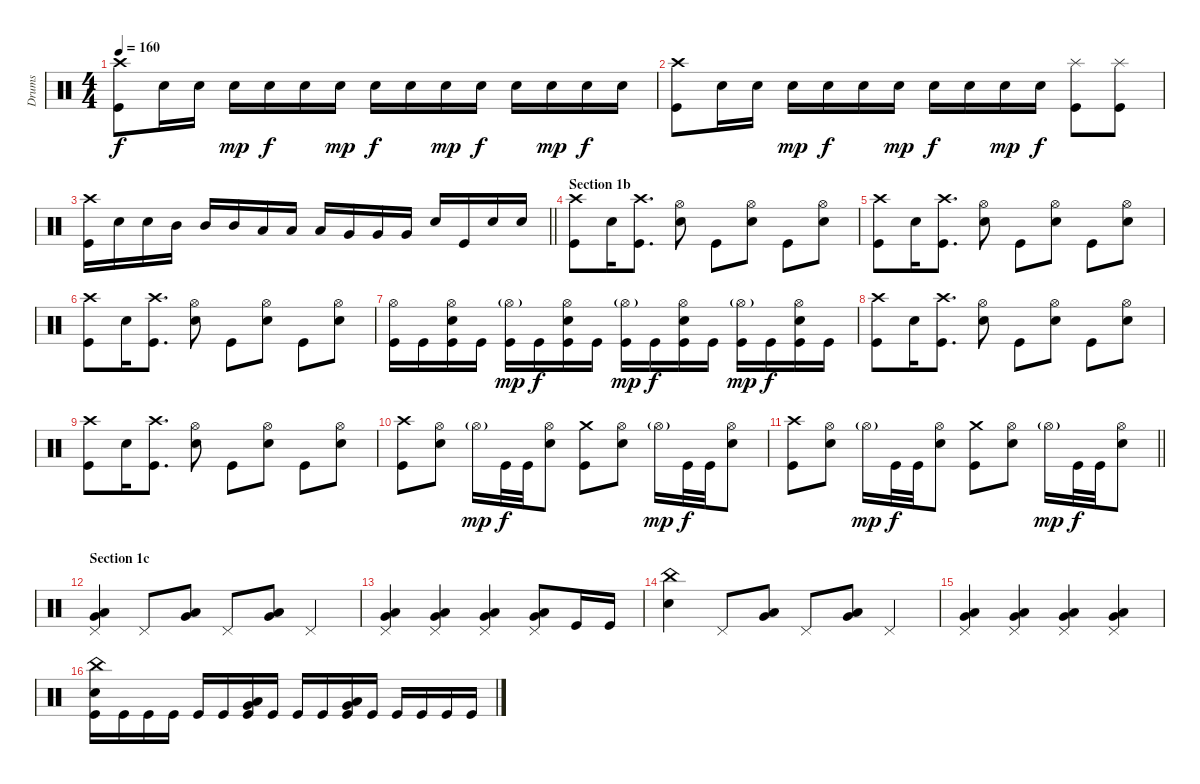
\track ("Drums" "Drums") {instrument percussion}
\staff {score}
\articulation defaults
\ts (4 4)
\tempo 160
\clef neutral
\ks c
("Crash high (hit)" "Kick (hit)").8{dy f} "Snare (hit) 2".16 "Snare (hit) 2".16 "Snare (hit) 2".16{dy mp} "Snare (hit) 2".16{dy f} "Snare (hit) 2".16 "Snare (hit) 2".16{dy mp} "Snare (hit) 2".16{dy f} "Snare (hit) 2".16 "Snare (hit) 2".16{dy mp} "Snare (hit) 2".16{dy f} "Snare (hit) 2".16 "Snare (hit) 2".16{dy mp} "Snare (hit) 2".16{dy f} "Snare (hit) 2".16 |
("Crash high (hit)" "Kick (hit)").8 "Snare (hit) 2".16 "Snare (hit) 2".16 "Snare (hit) 2".16{dy mp} "Snare (hit) 2".16{dy f} "Snare (hit) 2".16 "Snare (hit) 2".16{dy mp} "Snare (hit) 2".16{dy f} "Snare (hit) 2".16 "Snare (hit) 2".16{dy mp} "Snare (hit) 2".16{dy f} ("Splash (hit)" "Kick (hit)").8 ("Splash (hit)" "Kick (hit)").8 |
\barLineRight lightlight
("Crash high (hit)" "Kick (hit)").16 "Snare (hit) 2".16 "Snare (hit) 2".16 "Mid Tom (hit)".16 "Mid Tom (hit)".16 "Mid Tom (hit)".16 "Low Tom (hit)".16 "Low Tom (hit)".16 "Low Tom (hit)".16 "Very Low Tom (hit)".16 "Very Low Tom (hit)".16 "Very Low Tom (hit)".16 "Snare (hit) 2".16 "Kick (hit)".16 "Snare (hit) 2".16 "Snare (hit) 2".16 |
\section ("" "Section 1b")
("Crash high (hit)" "Kick (hit)").8 "Snare (hit) 2".16 ("Crash high (hit)" "Kick (hit)").8{d} ("Hi-Hat (open)" "Snare (hit) 2").8 "Kick (hit)".8 ("Hi-Hat (open)" "Snare (hit) 2").8 "Kick (hit)".8 ("Hi-Hat (open)" "Snare (hit) 2").8 |
("Crash high (hit)" "Kick (hit)").8 "Snare (hit) 2".16 ("Crash high (hit)" "Kick (hit)").8{d} ("Hi-Hat (open)" "Snare (hit) 2").8 "Kick (hit)".8 ("Hi-Hat (open)" "Snare (hit) 2").8 "Kick (hit)".8 ("Hi-Hat (open)" "Snare (hit) 2").8 |
("Crash high (hit)" "Kick (hit)").8 "Snare (hit) 2".16 ("Crash high (hit)" "Kick (hit)").8{d} ("Hi-Hat (open)" "Snare (hit) 2").8 "Kick (hit)".8 ("Hi-Hat (open)" "Snare (hit) 2").8 "Kick (hit)".8 ("Hi-Hat (open)" "Snare (hit) 2").8 |
("Hi-Hat (open)" "Kick (hit)").16 "Kick (hit)".16 ("Hi-Hat (open)" "Snare (hit) 2" "Kick (hit)").16 "Kick (hit)".16 ("Hi-Hat (open)"{g} "Kick (hit)").16{dy mp} "Kick (hit)".16{dy f} ("Hi-Hat (open)" "Snare (hit) 2" "Kick (hit)").16 "Kick (hit)".16 ("Hi-Hat (open)"{g} "Kick (hit)").16{dy mp} "Kick (hit)".16{dy f} ("Hi-Hat (open)" "Snare (hit) 2" "Kick (hit)").16 "Kick (hit)".16 ("Hi-Hat (open)"{g} "Kick (hit)").16{dy mp} "Kick (hit)".16{dy f} ("Hi-Hat (open)" "Snare (hit) 2" "Kick (hit)").16 "Kick (hit)".16 |
("Crash high (hit)" "Kick (hit)").8 "Snare (hit) 2".16 ("Crash high (hit)" "Kick (hit)").8{d} ("Hi-Hat (open)" "Snare (hit) 2").8 "Kick (hit)".8 ("Hi-Hat (open)" "Snare (hit) 2").8 "Kick (hit)".8 ("Hi-Hat (open)" "Snare (hit) 2").8 |
("Crash high (hit)" "Kick (hit)").8 "Snare (hit) 2".16 ("Crash high (hit)" "Kick (hit)").8{d} ("Hi-Hat (open)" "Snare (hit) 2").8 "Kick (hit)".8 ("Hi-Hat (open)" "Snare (hit) 2").8 "Kick (hit)".8 ("Hi-Hat (open)" "Snare (hit) 2").8 |
("Crash high (hit)" "Kick (hit)").8 ("Hi-Hat (open)" "Snare (hit) 2").8 "Hi-Hat (open)"{g}.16{dy mp} "Kick (hit)".32{dy f} "Kick (hit)".32 ("Hi-Hat (open)" "Snare (hit) 2").8 ("Crash medium (hit)" "Kick (hit)").8 ("Hi-Hat (open)" "Snare (hit) 2").8 "Hi-Hat (open)"{g}.16{dy mp} "Kick (hit)".32{dy f} "Kick (hit)".32 ("Hi-Hat (open)" "Snare (hit) 2").8 |
\barLineRight lightlight
("Crash high (hit)" "Kick (hit)").8 ("Hi-Hat (open)" "Snare (hit) 2").8 "Hi-Hat (open)"{g}.16{dy mp} "Kick (hit)".32{dy f} "Kick (hit)".32 ("Hi-Hat (open)" "Snare (hit) 2").8 ("Crash medium (hit)" "Kick (hit)").8 ("Hi-Hat (open)" "Snare (hit) 2").8 "Hi-Hat (open)"{g}.16{dy mp} "Kick (hit)".32{dy f} "Kick (hit)".32 ("Hi-Hat (open)" "Snare (hit) 2").8 |
\section ("" "Section 1c")
("Pedal Hi-Hat (hit)" "Very Low Tom (hit)" "Low Floor Tom (hit)").4 "Pedal Hi-Hat (hit)".8 ("Very Low Tom (hit)" "Low Floor Tom (hit)").8 "Pedal Hi-Hat (hit)".8 ("Very Low Tom (hit)" "Low Floor Tom (hit)").8 "Pedal Hi-Hat (hit)".4 |
("Pedal Hi-Hat (hit)" "Very Low Tom (hit)" "Low Floor Tom (hit)").4 ("Pedal Hi-Hat (hit)" "Very Low Tom (hit)" "Low Floor Tom (hit)").4 ("Pedal Hi-Hat (hit)" "Very Low Tom (hit)" "Low Floor Tom (hit)").4 ("Pedal Hi-Hat (hit)" "Very Low Tom (hit)" "Low Floor Tom (hit)").8 "Kick (hit)".16 "Kick (hit)".16 |
("China (hit)" "Snare (hit) 2").4 "Pedal Hi-Hat (hit)".8 ("Very Low Tom (hit)" "Low Floor Tom (hit)").8 "Pedal Hi-Hat (hit)".8 ("Very Low Tom (hit)" "Low Floor Tom (hit)").8 "Pedal Hi-Hat (hit)".4 |
("Pedal Hi-Hat (hit)" "Very Low Tom (hit)" "Low Floor Tom (hit)").4 ("Pedal Hi-Hat (hit)" "Very Low Tom (hit)" "Low Floor Tom (hit)").4 ("Pedal Hi-Hat (hit)" "Very Low Tom (hit)" "Low Floor Tom (hit)").4 ("Pedal Hi-Hat (hit)" "Very Low Tom (hit)" "Low Floor Tom (hit)").4 |
("China (hit)" "Snare (hit) 2" "Kick (hit)").16 "Kick (hit)".16 "Kick (hit)".16 "Kick (hit)".16 "Kick (hit)".16 "Kick (hit)".16 ("Very Low Tom (hit)" "Low Floor Tom (hit)" "Kick (hit)").16 "Kick (hit)".16 "Kick (hit)".16 "Kick (hit)".16 ("Very Low Tom (hit)" "Low Floor Tom (hit)" "Kick (hit)").16 "Kick (hit)".16 "Kick (hit)".16 "Kick (hit)".16 "Kick (hit)".16 "Kick (hit)".16
